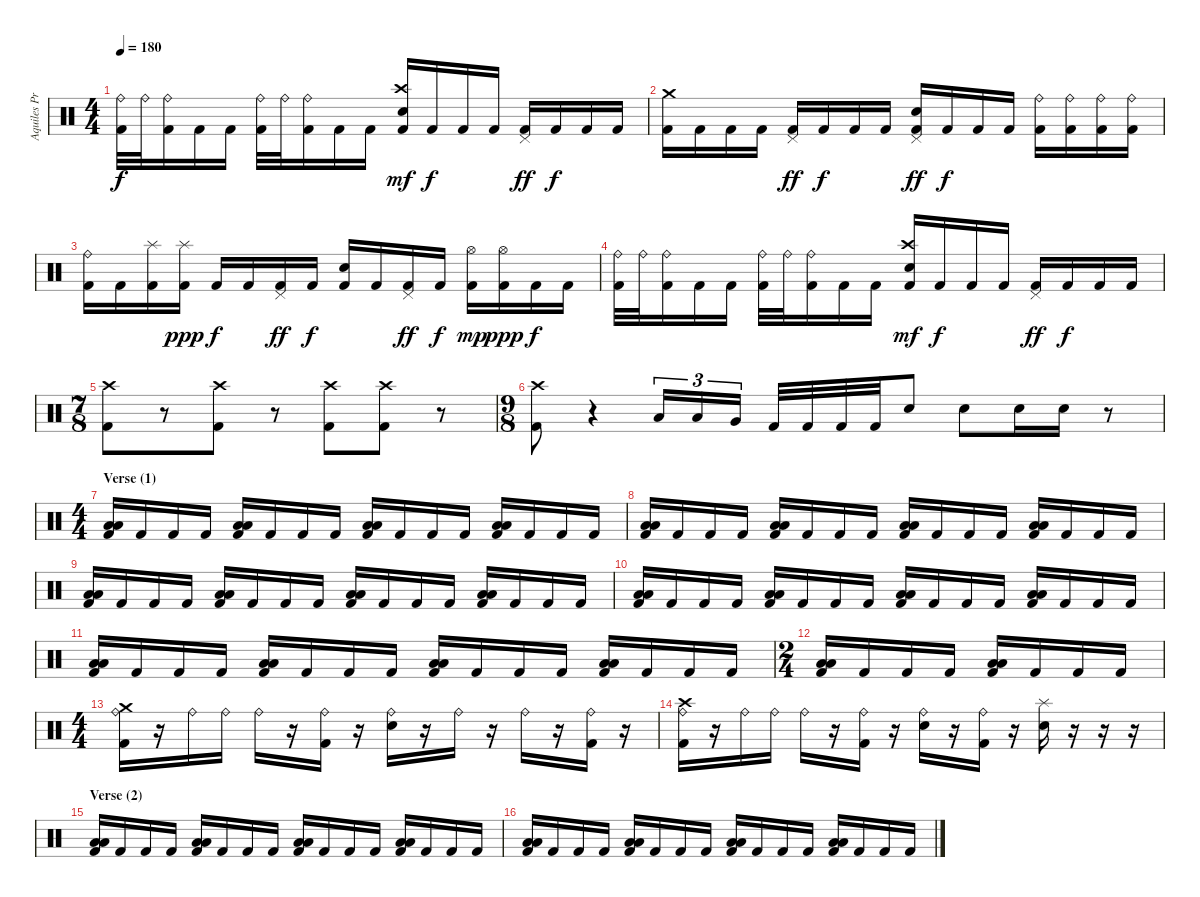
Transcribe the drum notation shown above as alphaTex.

\track ("Aquiles Priester" "Aquiles Pr") {instrument percussion}
\staff {score}
\articulation defaults
\ts (4 4)
\tempo 180
\clef neutral
\ks c
("Ride (bell)" "Kick (hit) 2").32{dy f} "Ride (bell)".32 ("Ride (bell)" "Kick (hit) 2").16 "Kick (hit) 2".16 "Kick (hit) 2".16 ("Ride (bell)" "Kick (hit) 2").32 "Ride (bell)".32 ("Ride (bell)" "Kick (hit) 2").16 "Kick (hit) 2".16 "Kick (hit) 2".16 ("Crash high (hit)" "Snare (hit) 2" "Kick (hit) 2").16{dy mf} "Kick (hit) 2".16{dy f} "Kick (hit) 2".16 "Kick (hit) 2".16 ("Pedal Hi-Hat (hit)" "Kick (hit) 2").16{dy ff} "Kick (hit) 2".16{dy f} "Kick (hit) 2".16 "Kick (hit) 2".16 |
("Crash medium (hit)" "Kick (hit) 2").16 "Kick (hit) 2".16 "Kick (hit) 2".16 "Kick (hit) 2".16 ("Pedal Hi-Hat (hit)" "Kick (hit) 2").16{dy ff} "Kick (hit) 2".16{dy f} "Kick (hit) 2".16 "Kick (hit) 2".16 ("Pedal Hi-Hat (hit)" "Snare (hit) 2" "Kick (hit) 2").16{dy ff} "Kick (hit) 2".16{dy f} "Kick (hit) 2".16 "Kick (hit) 2".16 ("Ride (bell)" "Kick (hit) 2").16 ("Ride (bell)" "Kick (hit) 2").16 ("Ride (bell)" "Kick (hit) 2").16 ("Ride (bell)" "Kick (hit) 2").16 |
("Ride (bell)" "Kick (hit) 2").16 "Kick (hit) 2".16 ("Splash (hit)" "Kick (hit) 2").16 ("Splash (hit)" "Kick (hit) 2").16{dy ppp} "Kick (hit) 2".16{dy f} "Kick (hit) 2".16 ("Pedal Hi-Hat (hit)" "Kick (hit) 2").16{dy ff} "Kick (hit) 2".16{dy f} ("Snare (hit) 2" "Kick (hit) 2").16 "Kick (hit) 2".16 ("Pedal Hi-Hat (hit)" "Kick (hit) 2").16{dy ff} "Kick (hit) 2".16{dy f} ("Hi-Hat (open)" "Kick (hit) 2").16{dy mp} ("Hi-Hat (open)" "Kick (hit) 2").16{dy ppp} "Kick (hit) 2".16{dy f} "Kick (hit) 2".16 |
("Ride (bell)" "Kick (hit) 2").32 "Ride (bell)".32 ("Ride (bell)" "Kick (hit) 2").16 "Kick (hit) 2".16 "Kick (hit) 2".16 ("Ride (bell)" "Kick (hit) 2").32 "Ride (bell)".32 ("Ride (bell)" "Kick (hit) 2").16 "Kick (hit) 2".16 "Kick (hit) 2".16 ("Crash high (hit)" "Snare (hit) 2" "Kick (hit) 2").16{dy mf} "Kick (hit) 2".16{dy f} "Kick (hit) 2".16 "Kick (hit) 2".16 ("Pedal Hi-Hat (hit)" "Kick (hit) 2").16{dy ff} "Kick (hit) 2".16{dy f} "Kick (hit) 2".16 "Kick (hit) 2".16 |
\ts (7 8)
("Crash high (hit)" "Kick (hit) 2").8 r.8 ("Crash high (hit)" "Kick (hit) 2").8 r.8 ("Crash high (hit)" "Kick (hit) 2").8 ("Crash high (hit)" "Kick (hit) 2").8 r.8 |
\ts (9 8)
("Crash high (hit)" "Kick (hit) 2").8 r.4 "Low Tom (hit)".16{tu (3 2)} "Low Tom (hit)".16{tu (3 2)} "Very Low Tom (hit)".16{tu (3 2)} "Kick (hit) 2".32 "Kick (hit) 2".32 "Kick (hit) 2".32 "Kick (hit) 2".32 "Snare (hit) 2".8 "Snare (hit) 2".8 "Snare (hit) 2".16 "Snare (hit) 2".16 r.8 |
\ts (4 4)
\section ("" "Verse (1)")
("Low Tom (hit)" "Low Floor Tom (hit)" "Kick (hit) 2").16 "Kick (hit) 2".16 "Kick (hit) 2".16 "Kick (hit) 2".16 ("Low Tom (hit)" "Low Floor Tom (hit)" "Kick (hit) 2").16 "Kick (hit) 2".16 "Kick (hit) 2".16 "Kick (hit) 2".16 ("Low Tom (hit)" "Low Floor Tom (hit)" "Kick (hit) 2").16 "Kick (hit) 2".16 "Kick (hit) 2".16 "Kick (hit) 2".16 ("Low Tom (hit)" "Low Floor Tom (hit)" "Kick (hit) 2").16 "Kick (hit) 2".16 "Kick (hit) 2".16 "Kick (hit) 2".16 |
("Low Tom (hit)" "Low Floor Tom (hit)" "Kick (hit) 2").16 "Kick (hit) 2".16 "Kick (hit) 2".16 "Kick (hit) 2".16 ("Low Tom (hit)" "Low Floor Tom (hit)" "Kick (hit) 2").16 "Kick (hit) 2".16 "Kick (hit) 2".16 "Kick (hit) 2".16 ("Low Tom (hit)" "Low Floor Tom (hit)" "Kick (hit) 2").16 "Kick (hit) 2".16 "Kick (hit) 2".16 "Kick (hit) 2".16 ("Low Tom (hit)" "Low Floor Tom (hit)" "Kick (hit) 2").16 "Kick (hit) 2".16 "Kick (hit) 2".16 "Kick (hit) 2".16 |
("Low Tom (hit)" "Low Floor Tom (hit)" "Kick (hit) 2").16 "Kick (hit) 2".16 "Kick (hit) 2".16 "Kick (hit) 2".16 ("Low Tom (hit)" "Low Floor Tom (hit)" "Kick (hit) 2").16 "Kick (hit) 2".16 "Kick (hit) 2".16 "Kick (hit) 2".16 ("Low Tom (hit)" "Low Floor Tom (hit)" "Kick (hit) 2").16 "Kick (hit) 2".16 "Kick (hit) 2".16 "Kick (hit) 2".16 ("Low Tom (hit)" "Low Floor Tom (hit)" "Kick (hit) 2").16 "Kick (hit) 2".16 "Kick (hit) 2".16 "Kick (hit) 2".16 |
("Low Tom (hit)" "Low Floor Tom (hit)" "Kick (hit) 2").16 "Kick (hit) 2".16 "Kick (hit) 2".16 "Kick (hit) 2".16 ("Low Tom (hit)" "Low Floor Tom (hit)" "Kick (hit) 2").16 "Kick (hit) 2".16 "Kick (hit) 2".16 "Kick (hit) 2".16 ("Low Tom (hit)" "Low Floor Tom (hit)" "Kick (hit) 2").16 "Kick (hit) 2".16 "Kick (hit) 2".16 "Kick (hit) 2".16 ("Low Tom (hit)" "Low Floor Tom (hit)" "Kick (hit) 2").16 "Kick (hit) 2".16 "Kick (hit) 2".16 "Kick (hit) 2".16 |
("Low Tom (hit)" "Low Floor Tom (hit)" "Kick (hit) 2").16 "Kick (hit) 2".16 "Kick (hit) 2".16 "Kick (hit) 2".16 ("Low Tom (hit)" "Low Floor Tom (hit)" "Kick (hit) 2").16 "Kick (hit) 2".16 "Kick (hit) 2".16 "Kick (hit) 2".16 ("Low Tom (hit)" "Low Floor Tom (hit)" "Kick (hit) 2").16 "Kick (hit) 2".16 "Kick (hit) 2".16 "Kick (hit) 2".16 ("Low Tom (hit)" "Low Floor Tom (hit)" "Kick (hit) 2").16 "Kick (hit) 2".16 "Kick (hit) 2".16 "Kick (hit) 2".16 |
\ts (2 4)
("Low Tom (hit)" "Low Floor Tom (hit)" "Kick (hit) 2").16 "Kick (hit) 2".16 "Kick (hit) 2".16 "Kick (hit) 2".16 ("Low Tom (hit)" "Low Floor Tom (hit)" "Kick (hit) 2").16 "Kick (hit) 2".16 "Kick (hit) 2".16 "Kick (hit) 2".16 |
\ts (4 4)
("Crash medium (hit)" "Ride (bell)" "Kick (hit) 2").16 r.16 "Ride (bell)".16 "Ride (bell)".16 "Ride (bell)".16 r.16 ("Ride (bell)" "Kick (hit) 2").16 r.16 ("Ride (bell)" "Snare (hit) 2").16 r.16 "Ride (bell)".16 r.16 "Ride (bell)".16 r.16 ("Ride (bell)" "Kick (hit) 2").16 r.16 |
("Crash high (hit)" "Ride (bell)" "Kick (hit) 2").16 r.16 "Ride (bell)".16 "Ride (bell)".16 "Ride (bell)".16 r.16 ("Ride (bell)" "Kick (hit) 2").16 r.16 ("Ride (bell)" "Snare (hit) 2").16 r.16 ("Ride (bell)" "Kick (hit) 2").16 r.16 ("Splash (hit)" "Snare (hit) 2").16 r.16 r.16 r.16 |
\section ("" "Verse (2)")
("Low Tom (hit)" "Low Floor Tom (hit)" "Kick (hit) 2").16 "Kick (hit) 2".16 "Kick (hit) 2".16 "Kick (hit) 2".16 ("Low Tom (hit)" "Low Floor Tom (hit)" "Kick (hit) 2").16 "Kick (hit) 2".16 "Kick (hit) 2".16 "Kick (hit) 2".16 ("Low Tom (hit)" "Low Floor Tom (hit)" "Kick (hit) 2").16 "Kick (hit) 2".16 "Kick (hit) 2".16 "Kick (hit) 2".16 ("Low Tom (hit)" "Low Floor Tom (hit)" "Kick (hit) 2").16 "Kick (hit) 2".16 "Kick (hit) 2".16 "Kick (hit) 2".16 |
("Low Tom (hit)" "Low Floor Tom (hit)" "Kick (hit) 2").16 "Kick (hit) 2".16 "Kick (hit) 2".16 "Kick (hit) 2".16 ("Low Tom (hit)" "Low Floor Tom (hit)" "Kick (hit) 2").16 "Kick (hit) 2".16 "Kick (hit) 2".16 "Kick (hit) 2".16 ("Low Tom (hit)" "Low Floor Tom (hit)" "Kick (hit) 2").16 "Kick (hit) 2".16 "Kick (hit) 2".16 "Kick (hit) 2".16 ("Low Tom (hit)" "Low Floor Tom (hit)" "Kick (hit) 2").16 "Kick (hit) 2".16 "Kick (hit) 2".16 "Kick (hit) 2".16
